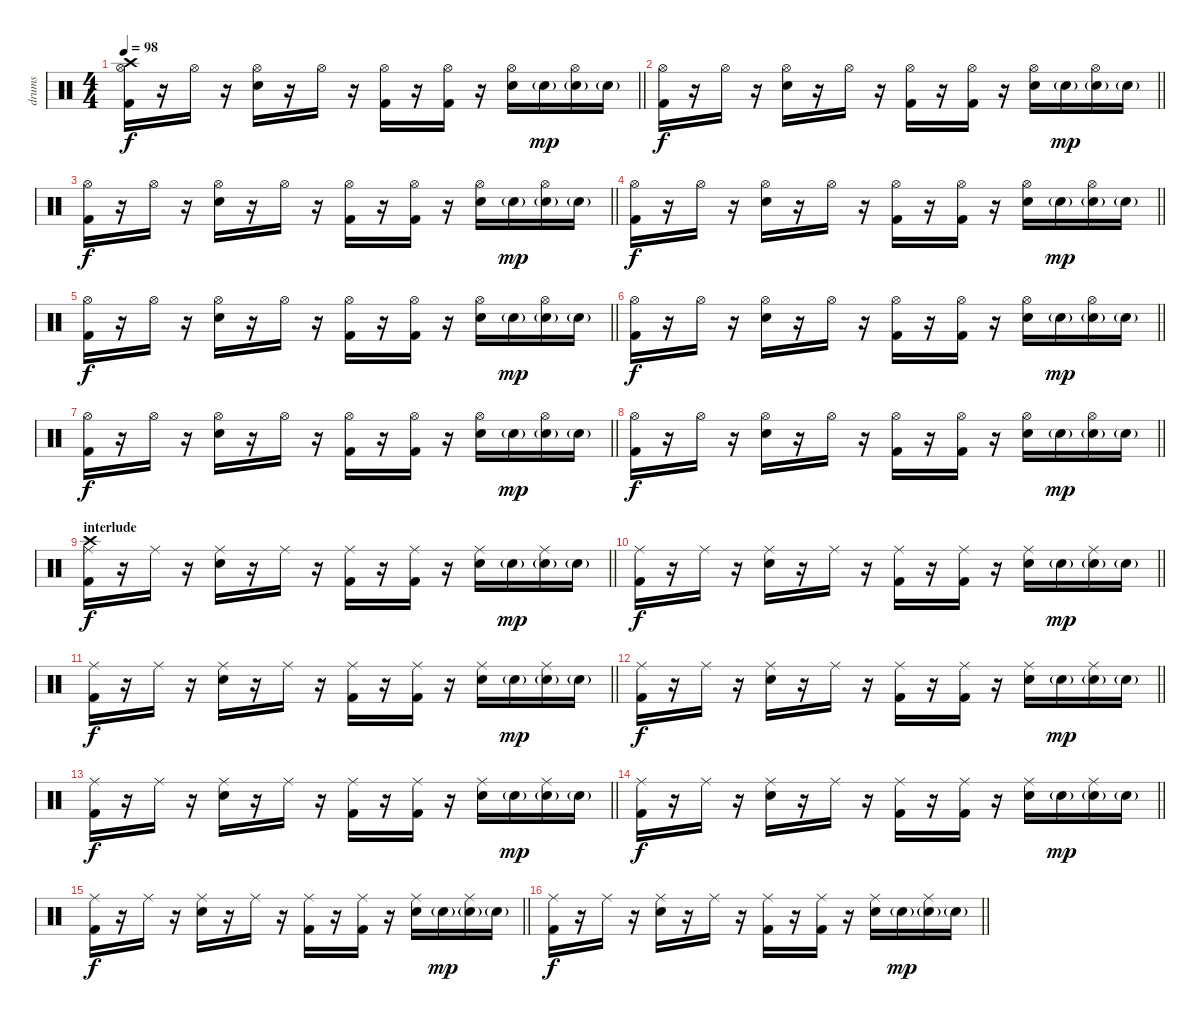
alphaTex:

\track ("drums" "drums") {instrument percussion}
\staff {score}
\articulation defaults
\ts (4 4)
\tempo 98
\clef neutral
\barLineRight lightlight
\ks c
("Kick (hit) 2" "Hi-Hat (open)" "Crash high (hit)").16{dy f} r.16 "Hi-Hat (open)".16 r.16 ("Electric Snare (hit)" "Hi-Hat (open)").16 r.16 "Hi-Hat (open)".16 r.16 ("Kick (hit) 2" "Hi-Hat (open)").16 r.16 ("Kick (hit) 2" "Hi-Hat (open)").16 r.16 ("Electric Snare (hit)" "Hi-Hat (open)").16 "Electric Snare (hit)"{g}.16{dy mp} ("Electric Snare (hit)"{g} "Hi-Hat (open)").16 "Electric Snare (hit)"{g}.16 |
\barLineRight lightlight
("Kick (hit) 2" "Hi-Hat (open)").16{dy f} r.16 "Hi-Hat (open)".16 r.16 ("Electric Snare (hit)" "Hi-Hat (open)").16 r.16 "Hi-Hat (open)".16 r.16 ("Kick (hit) 2" "Hi-Hat (open)").16 r.16 ("Kick (hit) 2" "Hi-Hat (open)").16 r.16 ("Electric Snare (hit)" "Hi-Hat (open)").16 "Electric Snare (hit)"{g}.16{dy mp} ("Electric Snare (hit)"{g} "Hi-Hat (open)").16 "Electric Snare (hit)"{g}.16 |
\barLineRight lightlight
("Kick (hit) 2" "Hi-Hat (open)").16{dy f} r.16 "Hi-Hat (open)".16 r.16 ("Electric Snare (hit)" "Hi-Hat (open)").16 r.16 "Hi-Hat (open)".16 r.16 ("Kick (hit) 2" "Hi-Hat (open)").16 r.16 ("Kick (hit) 2" "Hi-Hat (open)").16 r.16 ("Electric Snare (hit)" "Hi-Hat (open)").16 "Electric Snare (hit)"{g}.16{dy mp} ("Electric Snare (hit)"{g} "Hi-Hat (open)").16 "Electric Snare (hit)"{g}.16 |
\barLineRight lightlight
("Kick (hit) 2" "Hi-Hat (open)").16{dy f} r.16 "Hi-Hat (open)".16 r.16 ("Electric Snare (hit)" "Hi-Hat (open)").16 r.16 "Hi-Hat (open)".16 r.16 ("Kick (hit) 2" "Hi-Hat (open)").16 r.16 ("Kick (hit) 2" "Hi-Hat (open)").16 r.16 ("Electric Snare (hit)" "Hi-Hat (open)").16 "Electric Snare (hit)"{g}.16{dy mp} ("Electric Snare (hit)"{g} "Hi-Hat (open)").16 "Electric Snare (hit)"{g}.16 |
\barLineRight lightlight
("Kick (hit) 2" "Hi-Hat (open)").16{dy f} r.16 "Hi-Hat (open)".16 r.16 ("Electric Snare (hit)" "Hi-Hat (open)").16 r.16 "Hi-Hat (open)".16 r.16 ("Kick (hit) 2" "Hi-Hat (open)").16 r.16 ("Kick (hit) 2" "Hi-Hat (open)").16 r.16 ("Electric Snare (hit)" "Hi-Hat (open)").16 "Electric Snare (hit)"{g}.16{dy mp} ("Electric Snare (hit)"{g} "Hi-Hat (open)").16 "Electric Snare (hit)"{g}.16 |
\barLineRight lightlight
("Kick (hit) 2" "Hi-Hat (open)").16{dy f} r.16 "Hi-Hat (open)".16 r.16 ("Electric Snare (hit)" "Hi-Hat (open)").16 r.16 "Hi-Hat (open)".16 r.16 ("Kick (hit) 2" "Hi-Hat (open)").16 r.16 ("Kick (hit) 2" "Hi-Hat (open)").16 r.16 ("Electric Snare (hit)" "Hi-Hat (open)").16 "Electric Snare (hit)"{g}.16{dy mp} ("Electric Snare (hit)"{g} "Hi-Hat (open)").16 "Electric Snare (hit)"{g}.16 |
\barLineRight lightlight
("Kick (hit) 2" "Hi-Hat (open)").16{dy f} r.16 "Hi-Hat (open)".16 r.16 ("Electric Snare (hit)" "Hi-Hat (open)").16 r.16 "Hi-Hat (open)".16 r.16 ("Kick (hit) 2" "Hi-Hat (open)").16 r.16 ("Kick (hit) 2" "Hi-Hat (open)").16 r.16 ("Electric Snare (hit)" "Hi-Hat (open)").16 "Electric Snare (hit)"{g}.16{dy mp} ("Electric Snare (hit)"{g} "Hi-Hat (open)").16 "Electric Snare (hit)"{g}.16 |
\barLineRight lightlight
("Kick (hit) 2" "Hi-Hat (open)").16{dy f} r.16 "Hi-Hat (open)".16 r.16 ("Electric Snare (hit)" "Hi-Hat (open)").16 r.16 "Hi-Hat (open)".16 r.16 ("Kick (hit) 2" "Hi-Hat (open)").16 r.16 ("Kick (hit) 2" "Hi-Hat (open)").16 r.16 ("Electric Snare (hit)" "Hi-Hat (open)").16 "Electric Snare (hit)"{g}.16{dy mp} ("Electric Snare (hit)"{g} "Hi-Hat (open)").16 "Electric Snare (hit)"{g}.16 |
\section ("" "interlude")
\barLineRight lightlight
("Kick (hit) 2" "Ride (middle)" "Crash high (hit)").16{dy f} r.16 "Ride (middle)".16 r.16 ("Electric Snare (hit)" "Ride (middle)").16 r.16 "Ride (middle)".16 r.16 ("Kick (hit) 2" "Ride (middle)").16 r.16 ("Kick (hit) 2" "Ride (middle)").16 r.16 ("Electric Snare (hit)" "Ride (middle)").16 "Electric Snare (hit)"{g}.16{dy mp} ("Electric Snare (hit)"{g} "Ride (middle)").16 "Electric Snare (hit)"{g}.16 |
\barLineRight lightlight
("Kick (hit) 2" "Ride (middle)").16{dy f} r.16 "Ride (middle)".16 r.16 ("Electric Snare (hit)" "Ride (middle)").16 r.16 "Ride (middle)".16 r.16 ("Kick (hit) 2" "Ride (middle)").16 r.16 ("Kick (hit) 2" "Ride (middle)").16 r.16 ("Electric Snare (hit)" "Ride (middle)").16 "Electric Snare (hit)"{g}.16{dy mp} ("Electric Snare (hit)"{g} "Ride (middle)").16 "Electric Snare (hit)"{g}.16 |
\barLineRight lightlight
("Kick (hit) 2" "Ride (middle)").16{dy f} r.16 "Ride (middle)".16 r.16 ("Electric Snare (hit)" "Ride (middle)").16 r.16 "Ride (middle)".16 r.16 ("Kick (hit) 2" "Ride (middle)").16 r.16 ("Kick (hit) 2" "Ride (middle)").16 r.16 ("Electric Snare (hit)" "Ride (middle)").16 "Electric Snare (hit)"{g}.16{dy mp} ("Electric Snare (hit)"{g} "Ride (middle)").16 "Electric Snare (hit)"{g}.16 |
\barLineRight lightlight
("Kick (hit) 2" "Ride (middle)").16{dy f} r.16 "Ride (middle)".16 r.16 ("Electric Snare (hit)" "Ride (middle)").16 r.16 "Ride (middle)".16 r.16 ("Kick (hit) 2" "Ride (middle)").16 r.16 ("Kick (hit) 2" "Ride (middle)").16 r.16 ("Electric Snare (hit)" "Ride (middle)").16 "Electric Snare (hit)"{g}.16{dy mp} ("Electric Snare (hit)"{g} "Ride (middle)").16 "Electric Snare (hit)"{g}.16 |
\barLineRight lightlight
("Kick (hit) 2" "Ride (middle)").16{dy f} r.16 "Ride (middle)".16 r.16 ("Electric Snare (hit)" "Ride (middle)").16 r.16 "Ride (middle)".16 r.16 ("Kick (hit) 2" "Ride (middle)").16 r.16 ("Kick (hit) 2" "Ride (middle)").16 r.16 ("Electric Snare (hit)" "Ride (middle)").16 "Electric Snare (hit)"{g}.16{dy mp} ("Electric Snare (hit)"{g} "Ride (middle)").16 "Electric Snare (hit)"{g}.16 |
\barLineRight lightlight
("Kick (hit) 2" "Ride (middle)").16{dy f} r.16 "Ride (middle)".16 r.16 ("Electric Snare (hit)" "Ride (middle)").16 r.16 "Ride (middle)".16 r.16 ("Kick (hit) 2" "Ride (middle)").16 r.16 ("Kick (hit) 2" "Ride (middle)").16 r.16 ("Electric Snare (hit)" "Ride (middle)").16 "Electric Snare (hit)"{g}.16{dy mp} ("Electric Snare (hit)"{g} "Ride (middle)").16 "Electric Snare (hit)"{g}.16 |
\barLineRight lightlight
("Kick (hit) 2" "Ride (middle)").16{dy f} r.16 "Ride (middle)".16 r.16 ("Electric Snare (hit)" "Ride (middle)").16 r.16 "Ride (middle)".16 r.16 ("Kick (hit) 2" "Ride (middle)").16 r.16 ("Kick (hit) 2" "Ride (middle)").16 r.16 ("Electric Snare (hit)" "Ride (middle)").16 "Electric Snare (hit)"{g}.16{dy mp} ("Electric Snare (hit)"{g} "Ride (middle)").16 "Electric Snare (hit)"{g}.16 |
\barLineRight lightlight
("Kick (hit) 2" "Ride (middle)").16{dy f} r.16 "Ride (middle)".16 r.16 ("Electric Snare (hit)" "Ride (middle)").16 r.16 "Ride (middle)".16 r.16 ("Kick (hit) 2" "Ride (middle)").16 r.16 ("Kick (hit) 2" "Ride (middle)").16 r.16 ("Electric Snare (hit)" "Ride (middle)").16 "Electric Snare (hit)"{g}.16{dy mp} ("Electric Snare (hit)"{g} "Ride (middle)").16 "Electric Snare (hit)"{g}.16
